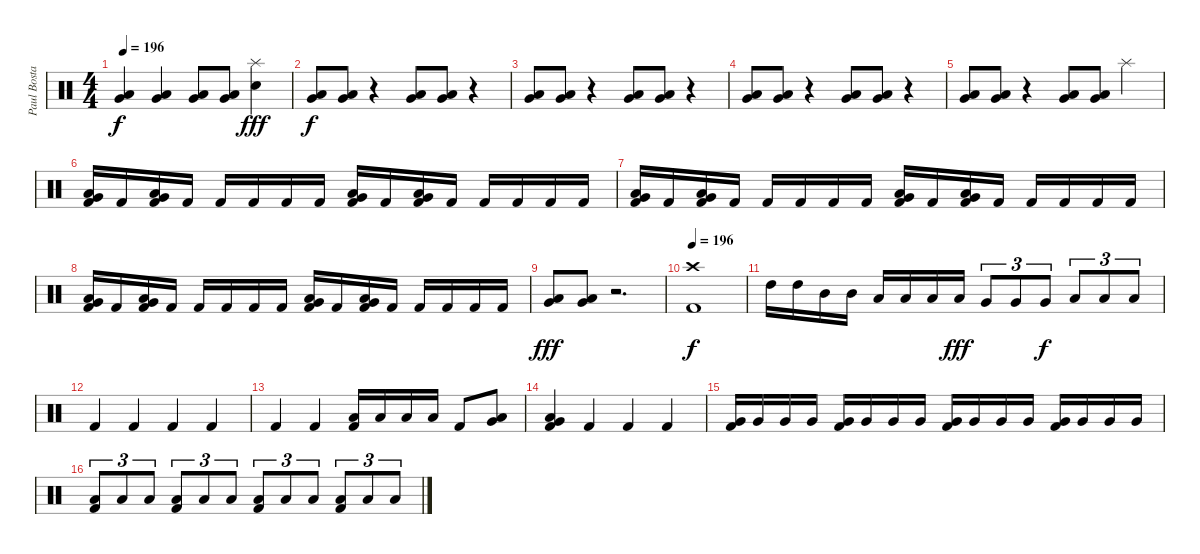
\track ("Paul Bostaph" "Paul Bosta") {instrument percussion}
\staff {score}
\articulation defaults
\ts (4 4)
\tempo 196
\clef neutral
\ks c
("Low Tom (hit)" "Very Low Tom (hit)").4{dy f} ("Low Tom (hit)" "Very Low Tom (hit)").4 ("Low Tom (hit)" "Very Low Tom (hit)").8 ("Low Tom (hit)" "Very Low Tom (hit)").8 ("Splash (hit)" "Electric Snare (hit)").4{dy fff} |
("Low Tom (hit)" "Very Low Tom (hit)").8{dy f} ("Low Tom (hit)" "Very Low Tom (hit)").8 r.4 ("Low Tom (hit)" "Very Low Tom (hit)").8 ("Low Tom (hit)" "Very Low Tom (hit)").8 r.4 |
("Low Tom (hit)" "Very Low Tom (hit)").8 ("Low Tom (hit)" "Very Low Tom (hit)").8 r.4 ("Low Tom (hit)" "Very Low Tom (hit)").8 ("Low Tom (hit)" "Very Low Tom (hit)").8 r.4 |
("Low Tom (hit)" "Very Low Tom (hit)").8 ("Low Tom (hit)" "Very Low Tom (hit)").8 r.4 ("Low Tom (hit)" "Very Low Tom (hit)").8 ("Low Tom (hit)" "Very Low Tom (hit)").8 r.4 |
("Low Tom (hit)" "Very Low Tom (hit)").8 ("Low Tom (hit)" "Very Low Tom (hit)").8 r.4 ("Low Tom (hit)" "Very Low Tom (hit)").8 ("Low Tom (hit)" "Very Low Tom (hit)").8 "Splash (hit)".4 |
("Very Low Tom (hit)" "Low Tom (hit)" "Kick (hit) 2").16 "Kick (hit) 2".16 ("Low Tom (hit)" "Very Low Tom (hit)" "Kick (hit) 2").16 "Kick (hit) 2".16 "Kick (hit) 2".16 "Kick (hit) 2".16 "Kick (hit) 2".16 "Kick (hit) 2".16 ("Low Tom (hit)" "Very Low Tom (hit)" "Kick (hit) 2").16 "Kick (hit) 2".16 ("Low Tom (hit)" "Very Low Tom (hit)" "Kick (hit) 2").16 "Kick (hit) 2".16 "Kick (hit) 2".16 "Kick (hit) 2".16 "Kick (hit) 2".16 "Kick (hit) 2".16 |
("Very Low Tom (hit)" "Low Tom (hit)" "Kick (hit) 2").16 "Kick (hit) 2".16 ("Low Tom (hit)" "Very Low Tom (hit)" "Kick (hit) 2").16 "Kick (hit) 2".16 "Kick (hit) 2".16 "Kick (hit) 2".16 "Kick (hit) 2".16 "Kick (hit) 2".16 ("Low Tom (hit)" "Very Low Tom (hit)" "Kick (hit) 2").16 "Kick (hit) 2".16 ("Low Tom (hit)" "Very Low Tom (hit)" "Kick (hit) 2").16 "Kick (hit) 2".16 "Kick (hit) 2".16 "Kick (hit) 2".16 "Kick (hit) 2".16 "Kick (hit) 2".16 |
("Very Low Tom (hit)" "Low Tom (hit)" "Kick (hit) 2").16 "Kick (hit) 2".16 ("Low Tom (hit)" "Very Low Tom (hit)" "Kick (hit) 2").16 "Kick (hit) 2".16 "Kick (hit) 2".16 "Kick (hit) 2".16 "Kick (hit) 2".16 "Kick (hit) 2".16 ("Low Tom (hit)" "Very Low Tom (hit)" "Kick (hit) 2").16 "Kick (hit) 2".16 ("Low Tom (hit)" "Very Low Tom (hit)" "Kick (hit) 2").16 "Kick (hit) 2".16 "Kick (hit) 2".16 "Kick (hit) 2".16 "Kick (hit) 2".16 "Kick (hit) 2".16 |
("Low Tom (hit)" "Very Low Tom (hit)").8{dy fff} ("Very Low Tom (hit)" "Low Tom (hit)").8 r.2{d} |
\tempo 196
("Crash high (hit)" "Kick (hit) 2").1{dy f} |
"High Tom (hit)".16 "High Tom (hit)".16 "Mid Tom (hit)".16 "Mid Tom (hit)".16 "Low Tom (hit)".16 "Low Tom (hit)".16 "Low Tom (hit)".16 "Low Tom (hit)".16{dy fff} "Very Low Tom (hit)".8{tu (3 2)} "Very Low Tom (hit)".8{tu (3 2)} "Very Low Tom (hit)".8{tu (3 2) dy f} "Low Floor Tom (hit)".8{tu (3 2)} "Low Floor Tom (hit)".8{tu (3 2)} "Low Floor Tom (hit)".8{tu (3 2)} |
"Kick (hit) 2".4 "Kick (hit) 2".4 "Kick (hit) 2".4 "Kick (hit) 2".4 |
"Kick (hit) 2".4 "Kick (hit) 2".4 ("Low Tom (hit)" "Kick (hit) 2").16 "Low Tom (hit)".16 "Low Tom (hit)".16 "Low Tom (hit)".16 "Kick (hit) 2".8 ("Low Tom (hit)" "Very Low Tom (hit)").8 |
("Low Tom (hit)" "Very Low Tom (hit)" "Kick (hit) 2").4 "Kick (hit) 2".4 "Kick (hit) 2".4 "Kick (hit) 2".4 |
("Very Low Tom (hit)" "Kick (hit) 2").16 "Very Low Tom (hit)".16 "Very Low Tom (hit)".16 "Very Low Tom (hit)".16 ("Very Low Tom (hit)" "Kick (hit) 2").16 "Very Low Tom (hit)".16 "Very Low Tom (hit)".16 "Very Low Tom (hit)".16 ("Very Low Tom (hit)" "Kick (hit) 2").16 "Very Low Tom (hit)".16 "Very Low Tom (hit)".16 "Very Low Tom (hit)".16 ("Very Low Tom (hit)" "Kick (hit) 2").16 "Very Low Tom (hit)".16 "Very Low Tom (hit)".16 "Very Low Tom (hit)".16 |
("Low Floor Tom (hit)" "Kick (hit) 2").8{tu (3 2)} "Low Floor Tom (hit)".8{tu (3 2)} "Low Floor Tom (hit)".8{tu (3 2)} ("Low Floor Tom (hit)" "Kick (hit) 2").8{tu (3 2)} "Low Floor Tom (hit)".8{tu (3 2)} "Low Floor Tom (hit)".8{tu (3 2)} ("Low Floor Tom (hit)" "Kick (hit) 2").8{tu (3 2)} "Low Floor Tom (hit)".8{tu (3 2)} "Low Floor Tom (hit)".8{tu (3 2)} ("Low Floor Tom (hit)" "Kick (hit) 2").8{tu (3 2)} "Low Floor Tom (hit)".8{tu (3 2)} "Low Floor Tom (hit)".8{tu (3 2)}
